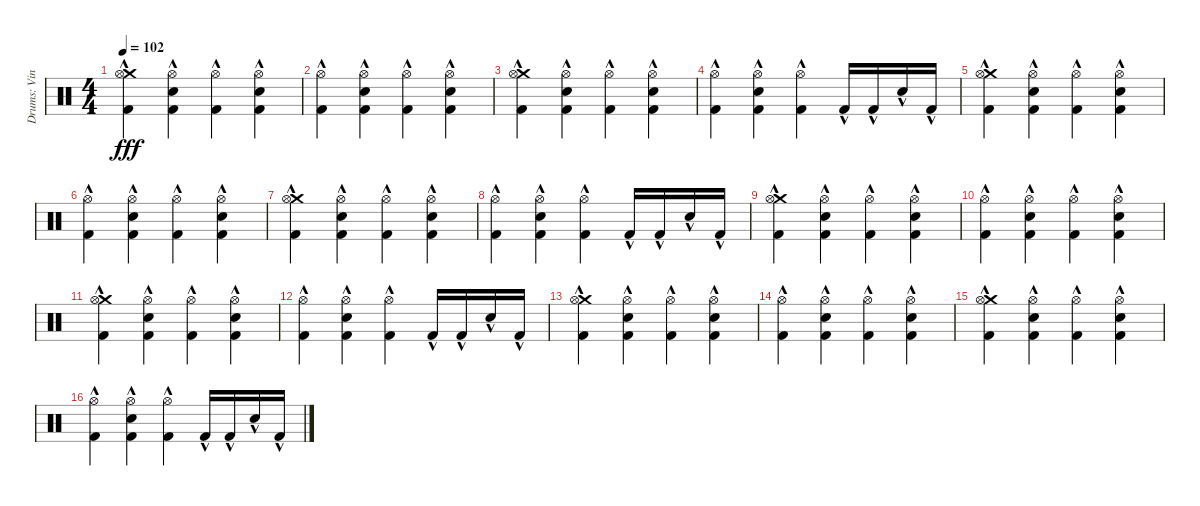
\track ("Drums: Vinny" "Drums: Vin") {instrument percussion}
\staff {score}
\articulation defaults
\ts (4 4)
\tempo 102
\clef neutral
\ks c
("Crash medium (hit)"{hac} "Hi-Hat (open)"{hac} "Kick (hit) 2"{hac}).4{dy fff} ("Hi-Hat (open)"{hac} "Snare (hit) 2"{hac} "Kick (hit) 2"{hac}).4 ("Hi-Hat (open)"{hac} "Kick (hit) 2"{hac}).4 ("Hi-Hat (open)"{hac} "Snare (hit) 2"{hac} "Kick (hit) 2"{hac}).4 |
("Hi-Hat (open)"{hac} "Kick (hit) 2"{hac}).4 ("Hi-Hat (open)"{hac} "Snare (hit) 2"{hac} "Kick (hit) 2"{hac}).4 ("Hi-Hat (open)"{hac} "Kick (hit) 2"{hac}).4 ("Hi-Hat (open)"{hac} "Snare (hit) 2"{hac} "Kick (hit) 2"{hac}).4 |
("Crash medium (hit)"{hac} "Hi-Hat (open)"{hac} "Kick (hit) 2"{hac}).4 ("Hi-Hat (open)"{hac} "Snare (hit) 2"{hac} "Kick (hit) 2"{hac}).4 ("Hi-Hat (open)"{hac} "Kick (hit) 2"{hac}).4 ("Hi-Hat (open)"{hac} "Snare (hit) 2"{hac} "Kick (hit) 2"{hac}).4 |
("Hi-Hat (open)"{hac} "Kick (hit) 2"{hac}).4 ("Hi-Hat (open)"{hac} "Snare (hit) 2"{hac} "Kick (hit) 2"{hac}).4 ("Hi-Hat (open)"{hac} "Kick (hit) 2"{hac}).4 "Kick (hit) 2"{hac}.16 "Kick (hit) 2"{hac}.16 "Snare (hit) 2"{hac}.16 "Kick (hit) 2"{hac}.16 |
("Crash medium (hit)"{hac} "Hi-Hat (open)"{hac} "Kick (hit) 2"{hac}).4 ("Hi-Hat (open)"{hac} "Snare (hit) 2"{hac} "Kick (hit) 2"{hac}).4 ("Hi-Hat (open)"{hac} "Kick (hit) 2"{hac}).4 ("Hi-Hat (open)"{hac} "Snare (hit) 2"{hac} "Kick (hit) 2"{hac}).4 |
("Hi-Hat (open)"{hac} "Kick (hit) 2"{hac}).4 ("Hi-Hat (open)"{hac} "Snare (hit) 2"{hac} "Kick (hit) 2"{hac}).4 ("Hi-Hat (open)"{hac} "Kick (hit) 2"{hac}).4 ("Hi-Hat (open)"{hac} "Snare (hit) 2"{hac} "Kick (hit) 2"{hac}).4 |
("Crash medium (hit)"{hac} "Hi-Hat (open)"{hac} "Kick (hit) 2"{hac}).4 ("Hi-Hat (open)"{hac} "Snare (hit) 2"{hac} "Kick (hit) 2"{hac}).4 ("Hi-Hat (open)"{hac} "Kick (hit) 2"{hac}).4 ("Hi-Hat (open)"{hac} "Snare (hit) 2"{hac} "Kick (hit) 2"{hac}).4 |
("Hi-Hat (open)"{hac} "Kick (hit) 2"{hac}).4 ("Hi-Hat (open)"{hac} "Snare (hit) 2"{hac} "Kick (hit) 2"{hac}).4 ("Hi-Hat (open)"{hac} "Kick (hit) 2"{hac}).4 "Kick (hit) 2"{hac}.16 "Kick (hit) 2"{hac}.16 "Snare (hit) 2"{hac}.16 "Kick (hit) 2"{hac}.16 |
("Crash medium (hit)"{hac} "Hi-Hat (open)"{hac} "Kick (hit) 2"{hac}).4 ("Hi-Hat (open)"{hac} "Snare (hit) 2"{hac} "Kick (hit) 2"{hac}).4 ("Hi-Hat (open)"{hac} "Kick (hit) 2"{hac}).4 ("Hi-Hat (open)"{hac} "Snare (hit) 2"{hac} "Kick (hit) 2"{hac}).4 |
("Hi-Hat (open)"{hac} "Kick (hit) 2"{hac}).4 ("Hi-Hat (open)"{hac} "Snare (hit) 2"{hac} "Kick (hit) 2"{hac}).4 ("Hi-Hat (open)"{hac} "Kick (hit) 2"{hac}).4 ("Hi-Hat (open)"{hac} "Snare (hit) 2"{hac} "Kick (hit) 2"{hac}).4 |
("Crash medium (hit)"{hac} "Hi-Hat (open)"{hac} "Kick (hit) 2"{hac}).4 ("Hi-Hat (open)"{hac} "Snare (hit) 2"{hac} "Kick (hit) 2"{hac}).4 ("Hi-Hat (open)"{hac} "Kick (hit) 2"{hac}).4 ("Hi-Hat (open)"{hac} "Snare (hit) 2"{hac} "Kick (hit) 2"{hac}).4 |
("Hi-Hat (open)"{hac} "Kick (hit) 2"{hac}).4 ("Hi-Hat (open)"{hac} "Snare (hit) 2"{hac} "Kick (hit) 2"{hac}).4 ("Hi-Hat (open)"{hac} "Kick (hit) 2"{hac}).4 "Kick (hit) 2"{hac}.16 "Kick (hit) 2"{hac}.16 "Snare (hit) 2"{hac}.16 "Kick (hit) 2"{hac}.16 |
("Crash medium (hit)"{hac} "Hi-Hat (open)"{hac} "Kick (hit) 2"{hac}).4 ("Hi-Hat (open)"{hac} "Snare (hit) 2"{hac} "Kick (hit) 2"{hac}).4 ("Hi-Hat (open)"{hac} "Kick (hit) 2"{hac}).4 ("Hi-Hat (open)"{hac} "Snare (hit) 2"{hac} "Kick (hit) 2"{hac}).4 |
("Hi-Hat (open)"{hac} "Kick (hit) 2"{hac}).4 ("Hi-Hat (open)"{hac} "Snare (hit) 2"{hac} "Kick (hit) 2"{hac}).4 ("Hi-Hat (open)"{hac} "Kick (hit) 2"{hac}).4 ("Hi-Hat (open)"{hac} "Snare (hit) 2"{hac} "Kick (hit) 2"{hac}).4 |
("Crash medium (hit)"{hac} "Hi-Hat (open)"{hac} "Kick (hit) 2"{hac}).4 ("Hi-Hat (open)"{hac} "Snare (hit) 2"{hac} "Kick (hit) 2"{hac}).4 ("Hi-Hat (open)"{hac} "Kick (hit) 2"{hac}).4 ("Hi-Hat (open)"{hac} "Snare (hit) 2"{hac} "Kick (hit) 2"{hac}).4 |
("Hi-Hat (open)"{hac} "Kick (hit) 2"{hac}).4 ("Hi-Hat (open)"{hac} "Snare (hit) 2"{hac} "Kick (hit) 2"{hac}).4 ("Hi-Hat (open)"{hac} "Kick (hit) 2"{hac}).4 "Kick (hit) 2"{hac}.16 "Kick (hit) 2"{hac}.16 "Snare (hit) 2"{hac}.16 "Kick (hit) 2"{hac}.16
